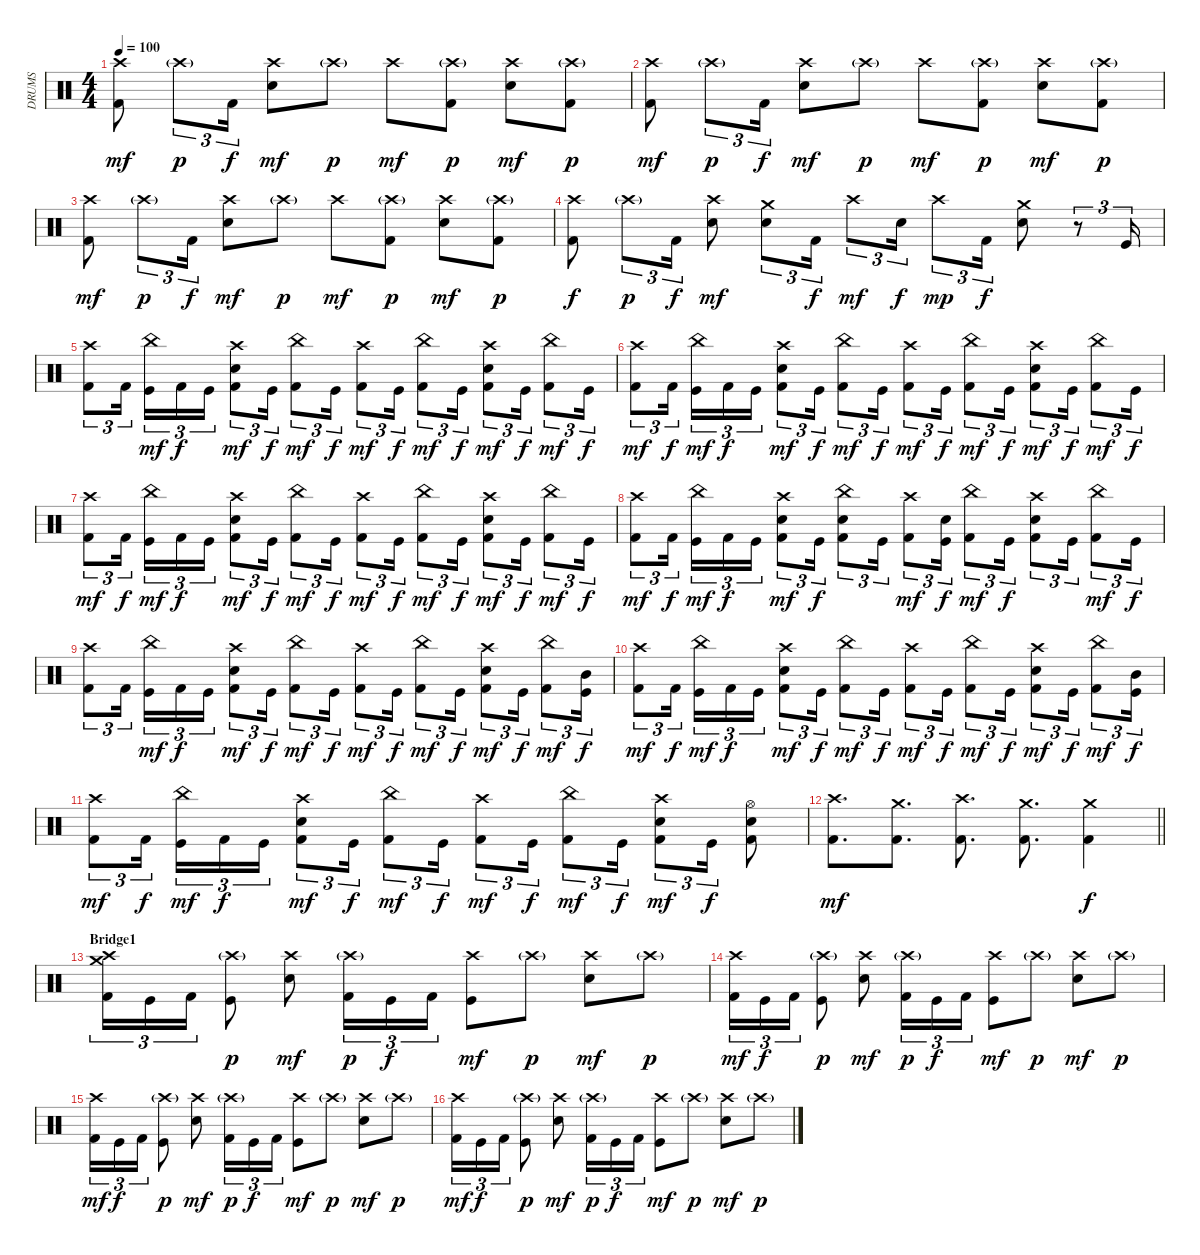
\track ("DRUMS" "DRUMS") {instrument percussion}
\staff {score}
\articulation defaults
\ts (4 4)
\tempo 100
\clef neutral
\ks c
("Crash high (hit)" "Kick (hit) 2").8{dy mf} "Crash high (hit)"{g}.8{tu (3 2) dy p} "Kick (hit) 2".16{tu (3 2) dy f} ("Crash high (hit)" "Snare (hit) 2").8{dy mf} "Crash high (hit)"{g}.8{dy p} "Crash high (hit)".8{dy mf} ("Crash high (hit)"{g} "Kick (hit) 2").8{dy p} ("Crash high (hit)" "Snare (hit) 2").8{dy mf} ("Crash high (hit)"{g} "Kick (hit) 2").8{dy p} |
("Crash high (hit)" "Kick (hit) 2").8{dy mf} "Crash high (hit)"{g}.8{tu (3 2) dy p} "Kick (hit) 2".16{tu (3 2) dy f} ("Crash high (hit)" "Snare (hit) 2").8{dy mf} "Crash high (hit)"{g}.8{dy p} "Crash high (hit)".8{dy mf} ("Crash high (hit)"{g} "Kick (hit) 2").8{dy p} ("Crash high (hit)" "Snare (hit) 2").8{dy mf} ("Crash high (hit)"{g} "Kick (hit) 2").8{dy p} |
("Crash high (hit)" "Kick (hit) 2").8{dy mf} "Crash high (hit)"{g}.8{tu (3 2) dy p} "Kick (hit) 2".16{tu (3 2) dy f} ("Crash high (hit)" "Snare (hit) 2").8{dy mf} "Crash high (hit)"{g}.8{dy p} "Crash high (hit)".8{dy mf} ("Crash high (hit)"{g} "Kick (hit) 2").8{dy p} ("Crash high (hit)" "Snare (hit) 2").8{dy mf} ("Crash high (hit)"{g} "Kick (hit) 2").8{dy p} |
("Crash high (hit)" "Kick (hit) 2").8{dy f} "Crash high (hit)"{g}.8{tu (3 2) dy p} "Kick (hit) 2".16{tu (3 2) dy f} ("Crash high (hit)" "Snare (hit) 2").8{dy mf} ("Crash medium (hit)" "Snare (hit) 2").8{tu (3 2)} "Kick (hit) 2".16{tu (3 2) dy f} "Crash high (hit)".8{tu (3 2) dy mf} "Snare (hit) 2".16{tu (3 2) dy f} "Crash high (hit)".8{tu (3 2) dy mp} "Kick (hit) 2".16{tu (3 2) dy f} ("Crash medium (hit)" "Snare (hit) 2").8 r.8{tu (3 2)} "Kick (hit)".16{tu (3 2)} |
("Crash high (hit)" "Kick (hit) 2").8{tu (3 2)} "Kick (hit) 2".16{tu (3 2) beam splitsecondary} ("China (hit)" "Kick (hit)").16{tu (3 2) dy mf} "Kick (hit) 2".16{tu (3 2) dy f} "Kick (hit)".16{tu (3 2)} ("Crash high (hit)" "Snare (hit) 2" "Kick (hit) 2").8{tu (3 2) dy mf} "Kick (hit)".16{tu (3 2) dy f} ("China (hit)" "Kick (hit) 2").8{tu (3 2) dy mf} "Kick (hit)".16{tu (3 2) dy f} ("Crash high (hit)" "Kick (hit) 2").8{tu (3 2) dy mf} "Kick (hit)".16{tu (3 2) dy f} ("China (hit)" "Kick (hit) 2").8{tu (3 2) dy mf} "Kick (hit)".16{tu (3 2) dy f} ("Crash high (hit)" "Snare (hit) 2" "Kick (hit) 2").8{tu (3 2) dy mf} "Kick (hit)".16{tu (3 2) dy f} ("China (hit)" "Kick (hit) 2").8{tu (3 2) dy mf} "Kick (hit)".16{tu (3 2) dy f} |
("Crash high (hit)" "Kick (hit) 2").8{tu (3 2) dy mf} "Kick (hit) 2".16{tu (3 2) dy f beam splitsecondary} ("China (hit)" "Kick (hit)").16{tu (3 2) dy mf} "Kick (hit) 2".16{tu (3 2) dy f} "Kick (hit)".16{tu (3 2)} ("Crash high (hit)" "Snare (hit) 2" "Kick (hit) 2").8{tu (3 2) dy mf} "Kick (hit)".16{tu (3 2) dy f} ("China (hit)" "Kick (hit) 2").8{tu (3 2) dy mf} "Kick (hit)".16{tu (3 2) dy f} ("Crash high (hit)" "Kick (hit) 2").8{tu (3 2) dy mf} "Kick (hit)".16{tu (3 2) dy f} ("China (hit)" "Kick (hit) 2").8{tu (3 2) dy mf} "Kick (hit)".16{tu (3 2) dy f} ("Crash high (hit)" "Snare (hit) 2" "Kick (hit) 2").8{tu (3 2) dy mf} "Kick (hit)".16{tu (3 2) dy f} ("China (hit)" "Kick (hit) 2").8{tu (3 2) dy mf} "Kick (hit)".16{tu (3 2) dy f} |
("Crash high (hit)" "Kick (hit) 2").8{tu (3 2) dy mf} "Kick (hit) 2".16{tu (3 2) dy f beam splitsecondary} ("China (hit)" "Kick (hit)").16{tu (3 2) dy mf} "Kick (hit) 2".16{tu (3 2) dy f} "Kick (hit)".16{tu (3 2)} ("Crash high (hit)" "Snare (hit) 2" "Kick (hit) 2").8{tu (3 2) dy mf} "Kick (hit)".16{tu (3 2) dy f} ("China (hit)" "Kick (hit) 2").8{tu (3 2) dy mf} "Kick (hit)".16{tu (3 2) dy f} ("Crash high (hit)" "Kick (hit) 2").8{tu (3 2) dy mf} "Kick (hit)".16{tu (3 2) dy f} ("China (hit)" "Kick (hit) 2").8{tu (3 2) dy mf} "Kick (hit)".16{tu (3 2) dy f} ("Crash high (hit)" "Snare (hit) 2" "Kick (hit) 2").8{tu (3 2) dy mf} "Kick (hit)".16{tu (3 2) dy f} ("China (hit)" "Kick (hit) 2").8{tu (3 2) dy mf} "Kick (hit)".16{tu (3 2) dy f} |
("Crash high (hit)" "Kick (hit) 2").8{tu (3 2) dy mf} "Kick (hit) 2".16{tu (3 2) dy f beam splitsecondary} ("China (hit)" "Kick (hit)").16{tu (3 2) dy mf} "Kick (hit) 2".16{tu (3 2) dy f} "Kick (hit)".16{tu (3 2)} ("Crash high (hit)" "Snare (hit) 2" "Kick (hit) 2").8{tu (3 2) dy mf} "Kick (hit)".16{tu (3 2) dy f} ("China (hit)" "Snare (hit) 2" "Kick (hit) 2").8{tu (3 2)} "Kick (hit)".16{tu (3 2)} ("Crash high (hit)" "Kick (hit) 2").8{tu (3 2) dy mf} ("Snare (hit) 2" "Kick (hit)").16{tu (3 2) dy f} ("China (hit)" "Kick (hit) 2").8{tu (3 2) dy mf} "Kick (hit)".16{tu (3 2) dy f} ("Crash high (hit)" "Snare (hit) 2" "Kick (hit) 2").8{tu (3 2)} "Kick (hit)".16{tu (3 2)} ("China (hit)" "Kick (hit) 2").8{tu (3 2) dy mf} "Kick (hit)".16{tu (3 2) dy f} |
("Crash high (hit)" "Kick (hit) 2").8{tu (3 2)} "Kick (hit) 2".16{tu (3 2) beam splitsecondary} ("China (hit)" "Kick (hit)").16{tu (3 2) dy mf} "Kick (hit) 2".16{tu (3 2) dy f} "Kick (hit)".16{tu (3 2)} ("Crash high (hit)" "Snare (hit) 2" "Kick (hit) 2").8{tu (3 2) dy mf} "Kick (hit)".16{tu (3 2) dy f} ("China (hit)" "Kick (hit) 2").8{tu (3 2) dy mf} "Kick (hit)".16{tu (3 2) dy f} ("Crash high (hit)" "Kick (hit) 2").8{tu (3 2) dy mf} "Kick (hit)".16{tu (3 2) dy f} ("China (hit)" "Kick (hit) 2").8{tu (3 2) dy mf} "Kick (hit)".16{tu (3 2) dy f} ("Crash high (hit)" "Snare (hit) 2" "Kick (hit) 2").8{tu (3 2) dy mf} "Kick (hit)".16{tu (3 2) dy f} ("China (hit)" "Kick (hit) 2").8{tu (3 2) dy mf} ("Mid Tom (hit)" "Kick (hit)").16{tu (3 2) dy f} |
("Crash high (hit)" "Kick (hit) 2").8{tu (3 2) dy mf} "Kick (hit) 2".16{tu (3 2) dy f beam splitsecondary} ("China (hit)" "Kick (hit)").16{tu (3 2) dy mf} "Kick (hit) 2".16{tu (3 2) dy f} "Kick (hit)".16{tu (3 2)} ("Crash high (hit)" "Snare (hit) 2" "Kick (hit) 2").8{tu (3 2) dy mf} "Kick (hit)".16{tu (3 2) dy f} ("China (hit)" "Kick (hit) 2").8{tu (3 2) dy mf} "Kick (hit)".16{tu (3 2) dy f} ("Crash high (hit)" "Kick (hit) 2").8{tu (3 2) dy mf} "Kick (hit)".16{tu (3 2) dy f} ("China (hit)" "Kick (hit) 2").8{tu (3 2) dy mf} "Kick (hit)".16{tu (3 2) dy f} ("Crash high (hit)" "Snare (hit) 2" "Kick (hit) 2").8{tu (3 2) dy mf} "Kick (hit)".16{tu (3 2) dy f} ("China (hit)" "Kick (hit) 2").8{tu (3 2) dy mf} ("Mid Tom (hit)" "Kick (hit)").16{tu (3 2) dy f} |
("Crash high (hit)" "Kick (hit) 2").8{tu (3 2) dy mf} "Kick (hit) 2".16{tu (3 2) dy f beam splitsecondary} ("China (hit)" "Kick (hit)").16{tu (3 2) dy mf} "Kick (hit) 2".16{tu (3 2) dy f} "Kick (hit)".16{tu (3 2)} ("Crash high (hit)" "Snare (hit) 2" "Kick (hit) 2").8{tu (3 2) dy mf} "Kick (hit)".16{tu (3 2) dy f} ("China (hit)" "Kick (hit) 2").8{tu (3 2) dy mf} "Kick (hit)".16{tu (3 2) dy f} ("Crash high (hit)" "Kick (hit) 2").8{tu (3 2) dy mf} "Kick (hit)".16{tu (3 2) dy f} ("China (hit)" "Kick (hit) 2").8{tu (3 2) dy mf} "Kick (hit)".16{tu (3 2) dy f} ("Crash high (hit)" "Snare (hit) 2" "Kick (hit) 2").8{tu (3 2) dy mf} "Kick (hit)".16{tu (3 2) dy f} ("Hi-Hat (open)" "Snare (hit) 2" "Kick (hit) 2").8 |
\barLineRight lightlight
("Crash high (hit)" "Kick (hit) 2").8{d dy mf} ("Crash medium (hit)" "Kick (hit) 2").8{d} ("Crash high (hit)" "Kick (hit) 2").8{d} ("Crash medium (hit)" "Kick (hit) 2").8{d} ("Crash medium (hit)" "Kick (hit) 2").4{dy f} |
\section ("" "Bridge1")
("Crash high (hit)" "Crash medium (hit)" "Kick (hit) 2").16{tu (3 2)} "Kick (hit)".16{tu (3 2)} "Kick (hit) 2".16{tu (3 2)} ("Crash high (hit)"{g} "Kick (hit)").8{dy p} ("Crash high (hit)" "Snare (hit) 2").8{dy mf} ("Crash high (hit)"{g} "Kick (hit) 2").16{tu (3 2) dy p} "Kick (hit)".16{tu (3 2) dy f} "Kick (hit) 2".16{tu (3 2)} ("Crash high (hit)" "Kick (hit)").8{dy mf} "Crash high (hit)"{g}.8{dy p} ("Crash high (hit)" "Snare (hit) 2").8{dy mf} "Crash high (hit)"{g}.8{dy p} |
("Crash high (hit)" "Kick (hit) 2").16{tu (3 2) dy mf} "Kick (hit)".16{tu (3 2) dy f} "Kick (hit) 2".16{tu (3 2)} ("Crash high (hit)"{g} "Kick (hit)").8{dy p} ("Crash high (hit)" "Snare (hit) 2").8{dy mf} ("Crash high (hit)"{g} "Kick (hit) 2").16{tu (3 2) dy p} "Kick (hit)".16{tu (3 2) dy f} "Kick (hit) 2".16{tu (3 2)} ("Crash high (hit)" "Kick (hit)").8{dy mf} "Crash high (hit)"{g}.8{dy p} ("Crash high (hit)" "Snare (hit) 2").8{dy mf} "Crash high (hit)"{g}.8{dy p} |
("Crash high (hit)" "Kick (hit) 2").16{tu (3 2) dy mf} "Kick (hit)".16{tu (3 2) dy f} "Kick (hit) 2".16{tu (3 2)} ("Crash high (hit)"{g} "Kick (hit)").8{dy p} ("Crash high (hit)" "Snare (hit) 2").8{dy mf} ("Crash high (hit)"{g} "Kick (hit) 2").16{tu (3 2) dy p} "Kick (hit)".16{tu (3 2) dy f} "Kick (hit) 2".16{tu (3 2)} ("Crash high (hit)" "Kick (hit)").8{dy mf} "Crash high (hit)"{g}.8{dy p} ("Crash high (hit)" "Snare (hit) 2").8{dy mf} "Crash high (hit)"{g}.8{dy p} |
("Crash high (hit)" "Kick (hit) 2").16{tu (3 2) dy mf} "Kick (hit)".16{tu (3 2) dy f} "Kick (hit) 2".16{tu (3 2)} ("Crash high (hit)"{g} "Kick (hit)").8{dy p} ("Crash high (hit)" "Snare (hit) 2").8{dy mf} ("Crash high (hit)"{g} "Kick (hit) 2").16{tu (3 2) dy p} "Kick (hit)".16{tu (3 2) dy f} "Kick (hit) 2".16{tu (3 2)} ("Crash high (hit)" "Kick (hit)").8{dy mf} "Crash high (hit)"{g}.8{dy p} ("Crash high (hit)" "Snare (hit) 2").8{dy mf} "Crash high (hit)"{g}.8{dy p}
